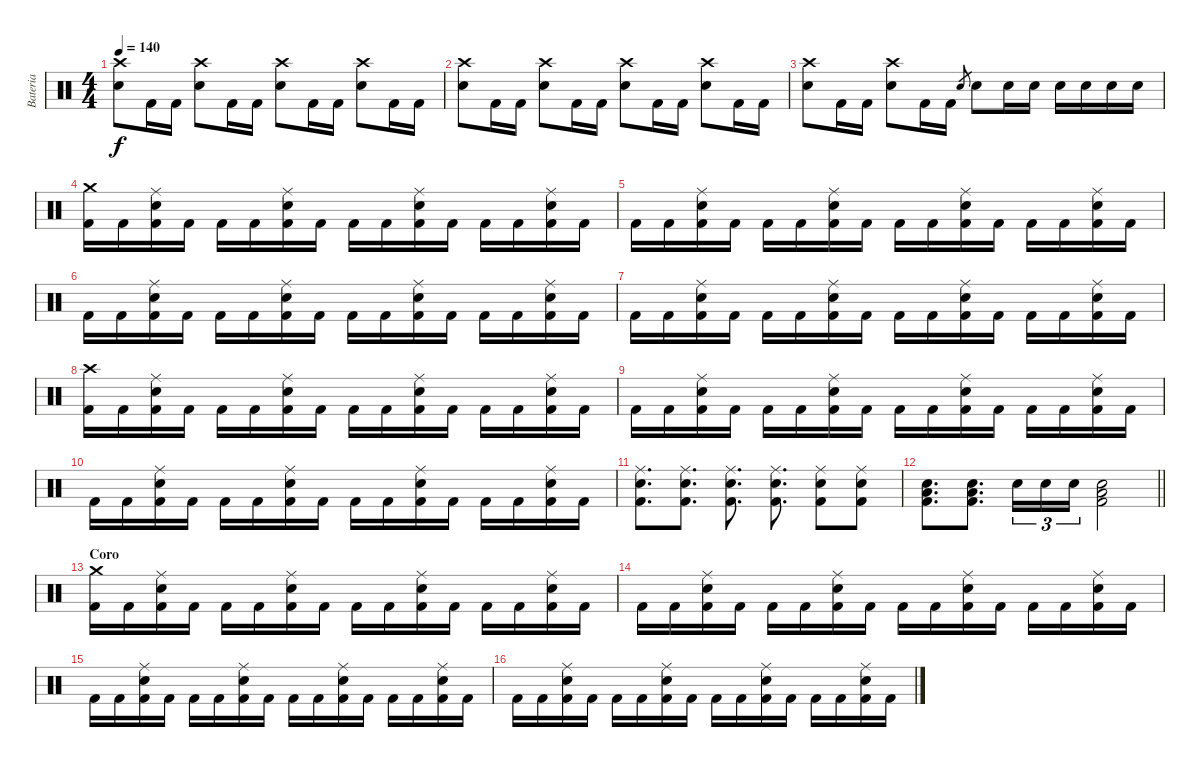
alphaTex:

\track ("Bateria" "Bateria") {instrument percussion}
\staff {score}
\articulation defaults
\ts (4 4)
\tempo 140
\clef neutral
\ks c
("Crash high (hit)" "Snare (hit) 2").8{dy f} "Kick (hit) 2".16 "Kick (hit) 2".16 ("Crash high (hit)" "Snare (hit) 2").8 "Kick (hit) 2".16 "Kick (hit) 2".16 ("Crash high (hit)" "Snare (hit) 2").8 "Kick (hit) 2".16 "Kick (hit) 2".16 ("Crash high (hit)" "Snare (hit) 2").8 "Kick (hit) 2".16 "Kick (hit) 2".16 |
("Crash high (hit)" "Snare (hit) 2").8 "Kick (hit) 2".16 "Kick (hit) 2".16 ("Crash high (hit)" "Snare (hit) 2").8 "Kick (hit) 2".16 "Kick (hit) 2".16 ("Crash high (hit)" "Snare (hit) 2").8 "Kick (hit) 2".16 "Kick (hit) 2".16 ("Crash high (hit)" "Snare (hit) 2").8 "Kick (hit) 2".16 "Kick (hit) 2".16 |
("Crash high (hit)" "Snare (hit) 2").8 "Kick (hit) 2".16 "Kick (hit) 2".16 ("Crash high (hit)" "Snare (hit) 2").8 "Kick (hit) 2".16 "Kick (hit) 2".16 "Snare (hit) 2".8{gr} "Snare (hit) 2".8 "Snare (hit) 2".16 "Snare (hit) 2".16 "Snare (hit) 2".16 "Snare (hit) 2".16 "Snare (hit) 2".16 "Snare (hit) 2".16 |
("Crash medium (hit)" "Kick (hit) 2").16 "Kick (hit) 2".16 ("Ride (middle)" "Snare (hit) 2" "Kick (hit) 2").16 "Kick (hit) 2".16 "Kick (hit) 2".16 "Kick (hit) 2".16 ("Ride (middle)" "Snare (hit) 2" "Kick (hit) 2").16 "Kick (hit) 2".16 "Kick (hit) 2".16 "Kick (hit) 2".16 ("Ride (middle)" "Snare (hit) 2" "Kick (hit) 2").16 "Kick (hit) 2".16 "Kick (hit) 2".16 "Kick (hit) 2".16 ("Ride (middle)" "Snare (hit) 2" "Kick (hit) 2").16 "Kick (hit) 2".16 |
"Kick (hit) 2".16 "Kick (hit) 2".16 ("Ride (middle)" "Snare (hit) 2" "Kick (hit) 2").16 "Kick (hit) 2".16 "Kick (hit) 2".16 "Kick (hit) 2".16 ("Ride (middle)" "Snare (hit) 2" "Kick (hit) 2").16 "Kick (hit) 2".16 "Kick (hit) 2".16 "Kick (hit) 2".16 ("Ride (middle)" "Snare (hit) 2" "Kick (hit) 2").16 "Kick (hit) 2".16 "Kick (hit) 2".16 "Kick (hit) 2".16 ("Ride (middle)" "Snare (hit) 2" "Kick (hit) 2").16 "Kick (hit) 2".16 |
"Kick (hit) 2".16 "Kick (hit) 2".16 ("Ride (middle)" "Snare (hit) 2" "Kick (hit) 2").16 "Kick (hit) 2".16 "Kick (hit) 2".16 "Kick (hit) 2".16 ("Ride (middle)" "Snare (hit) 2" "Kick (hit) 2").16 "Kick (hit) 2".16 "Kick (hit) 2".16 "Kick (hit) 2".16 ("Ride (middle)" "Snare (hit) 2" "Kick (hit) 2").16 "Kick (hit) 2".16 "Kick (hit) 2".16 "Kick (hit) 2".16 ("Ride (middle)" "Snare (hit) 2" "Kick (hit) 2").16 "Kick (hit) 2".16 |
"Kick (hit) 2".16 "Kick (hit) 2".16 ("Ride (middle)" "Snare (hit) 2" "Kick (hit) 2").16 "Kick (hit) 2".16 "Kick (hit) 2".16 "Kick (hit) 2".16 ("Ride (middle)" "Snare (hit) 2" "Kick (hit) 2").16 "Kick (hit) 2".16 "Kick (hit) 2".16 "Kick (hit) 2".16 ("Ride (middle)" "Snare (hit) 2" "Kick (hit) 2").16 "Kick (hit) 2".16 "Kick (hit) 2".16 "Kick (hit) 2".16 ("Ride (middle)" "Snare (hit) 2" "Kick (hit) 2").16 "Kick (hit) 2".16 |
("Crash high (hit)" "Kick (hit) 2").16 "Kick (hit) 2".16 ("Ride (middle)" "Snare (hit) 2" "Kick (hit) 2").16 "Kick (hit) 2".16 "Kick (hit) 2".16 "Kick (hit) 2".16 ("Ride (middle)" "Snare (hit) 2" "Kick (hit) 2").16 "Kick (hit) 2".16 "Kick (hit) 2".16 "Kick (hit) 2".16 ("Ride (middle)" "Snare (hit) 2" "Kick (hit) 2").16 "Kick (hit) 2".16 "Kick (hit) 2".16 "Kick (hit) 2".16 ("Ride (middle)" "Snare (hit) 2" "Kick (hit) 2").16 "Kick (hit) 2".16 |
"Kick (hit) 2".16 "Kick (hit) 2".16 ("Ride (middle)" "Snare (hit) 2" "Kick (hit) 2").16 "Kick (hit) 2".16 "Kick (hit) 2".16 "Kick (hit) 2".16 ("Ride (middle)" "Snare (hit) 2" "Kick (hit) 2").16 "Kick (hit) 2".16 "Kick (hit) 2".16 "Kick (hit) 2".16 ("Ride (middle)" "Snare (hit) 2" "Kick (hit) 2").16 "Kick (hit) 2".16 "Kick (hit) 2".16 "Kick (hit) 2".16 ("Ride (middle)" "Snare (hit) 2" "Kick (hit) 2").16 "Kick (hit) 2".16 |
"Kick (hit) 2".16 "Kick (hit) 2".16 ("Ride (middle)" "Snare (hit) 2" "Kick (hit) 2").16 "Kick (hit) 2".16 "Kick (hit) 2".16 "Kick (hit) 2".16 ("Ride (middle)" "Snare (hit) 2" "Kick (hit) 2").16 "Kick (hit) 2".16 "Kick (hit) 2".16 "Kick (hit) 2".16 ("Ride (middle)" "Snare (hit) 2" "Kick (hit) 2").16 "Kick (hit) 2".16 "Kick (hit) 2".16 "Kick (hit) 2".16 ("Ride (middle)" "Snare (hit) 2" "Kick (hit) 2").16 "Kick (hit) 2".16 |
("Ride (middle)" "Snare (hit) 2" "Kick (hit) 2").8{d} ("Ride (middle)" "Snare (hit) 2" "Kick (hit) 2").8{d} ("Ride (middle)" "Snare (hit) 2" "Kick (hit) 2").8{d} ("Ride (middle)" "Snare (hit) 2" "Kick (hit) 2").8{d} ("Ride (middle)" "Snare (hit) 2" "Kick (hit) 2").8 ("Ride (middle)" "Snare (hit) 2" "Kick (hit) 2").8 |
\barLineRight lightlight
("Low Tom (hit)" "Snare (hit) 2" "Kick (hit) 2").8{d} ("Low Tom (hit)" "Snare (hit) 2" "Kick (hit) 2").8{d} "Snare (hit) 2".16{tu (3 2)} "Snare (hit) 2".16{tu (3 2)} "Snare (hit) 2".16{tu (3 2)} ("Low Tom (hit)" "Snare (hit) 2" "Kick (hit) 2").2 |
\section ("" "Coro")
("Crash medium (hit)" "Kick (hit) 2").16 "Kick (hit) 2".16 ("Ride (middle)" "Snare (hit) 2" "Kick (hit) 2").16 "Kick (hit) 2".16 "Kick (hit) 2".16 "Kick (hit) 2".16 ("Ride (middle)" "Snare (hit) 2" "Kick (hit) 2").16 "Kick (hit) 2".16 "Kick (hit) 2".16 "Kick (hit) 2".16 ("Ride (middle)" "Snare (hit) 2" "Kick (hit) 2").16 "Kick (hit) 2".16 "Kick (hit) 2".16 "Kick (hit) 2".16 ("Ride (middle)" "Snare (hit) 2" "Kick (hit) 2").16 "Kick (hit) 2".16 |
"Kick (hit) 2".16 "Kick (hit) 2".16 ("Ride (middle)" "Snare (hit) 2" "Kick (hit) 2").16 "Kick (hit) 2".16 "Kick (hit) 2".16 "Kick (hit) 2".16 ("Ride (middle)" "Snare (hit) 2" "Kick (hit) 2").16 "Kick (hit) 2".16 "Kick (hit) 2".16 "Kick (hit) 2".16 ("Ride (middle)" "Snare (hit) 2" "Kick (hit) 2").16 "Kick (hit) 2".16 "Kick (hit) 2".16 "Kick (hit) 2".16 ("Ride (middle)" "Snare (hit) 2" "Kick (hit) 2").16 "Kick (hit) 2".16 |
"Kick (hit) 2".16 "Kick (hit) 2".16 ("Ride (middle)" "Snare (hit) 2" "Kick (hit) 2").16 "Kick (hit) 2".16 "Kick (hit) 2".16 "Kick (hit) 2".16 ("Ride (middle)" "Snare (hit) 2" "Kick (hit) 2").16 "Kick (hit) 2".16 "Kick (hit) 2".16 "Kick (hit) 2".16 ("Ride (middle)" "Snare (hit) 2" "Kick (hit) 2").16 "Kick (hit) 2".16 "Kick (hit) 2".16 "Kick (hit) 2".16 ("Ride (middle)" "Snare (hit) 2" "Kick (hit) 2").16 "Kick (hit) 2".16 |
"Kick (hit) 2".16 "Kick (hit) 2".16 ("Ride (middle)" "Snare (hit) 2" "Kick (hit) 2").16 "Kick (hit) 2".16 "Kick (hit) 2".16 "Kick (hit) 2".16 ("Ride (middle)" "Snare (hit) 2" "Kick (hit) 2").16 "Kick (hit) 2".16 "Kick (hit) 2".16 "Kick (hit) 2".16 ("Ride (middle)" "Snare (hit) 2" "Kick (hit) 2").16 "Kick (hit) 2".16 "Kick (hit) 2".16 "Kick (hit) 2".16 ("Ride (middle)" "Snare (hit) 2" "Kick (hit) 2").16 "Kick (hit) 2".16
